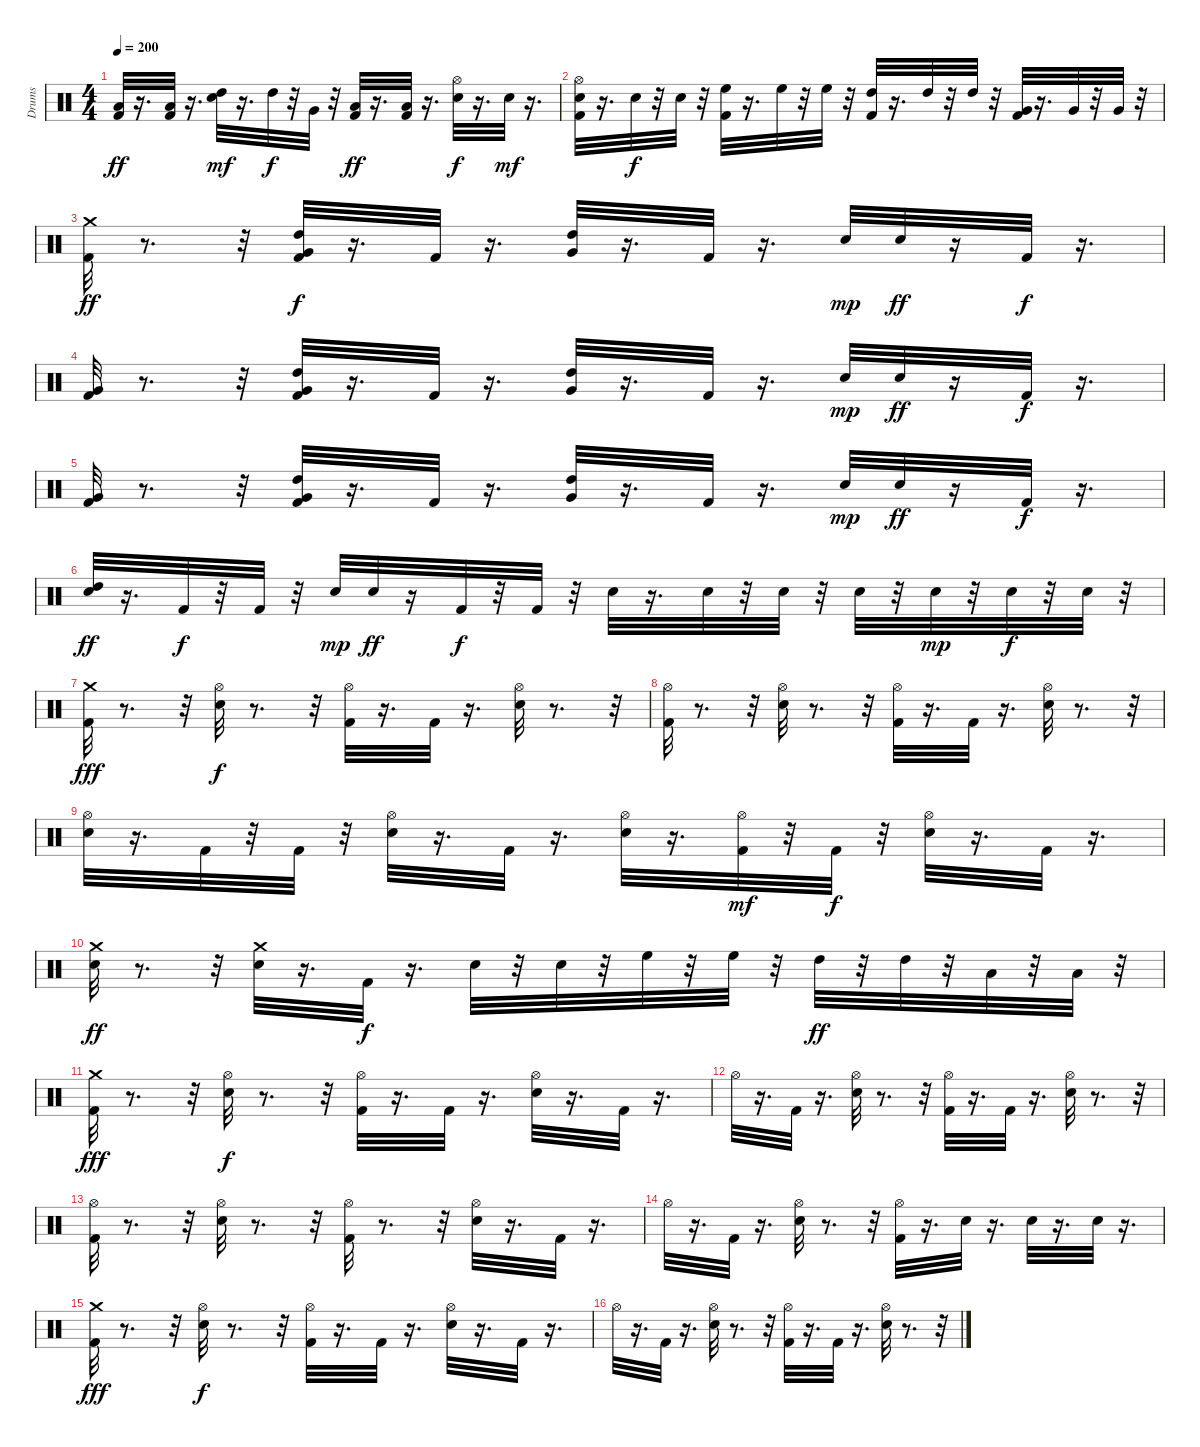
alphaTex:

\track ("Drums" "Drums") {instrument percussion}
\staff {score}
\articulation defaults
\ts (4 4)
\tempo 200
\clef neutral
\ks c
("Low Floor Tom (hit)" "Kick (hit) 2").32{dy ff} r.16{d} ("Low Floor Tom (hit)" "Kick (hit) 2").32 r.16{d} ("High Tom (hit)" "Snare (hit) 2").32{dy mf} r.16{d} "High Tom (hit)".32{dy f} r.32 "Very Low Tom (hit)".32 r.32 ("Low Floor Tom (hit)" "Kick (hit) 2").32{dy ff} r.16{d} ("Low Floor Tom (hit)" "Kick (hit) 2").32 r.16{d} ("Hi-Hat (open)" "Snare (hit) 2").32{dy f} r.16{d} "Snare (hit) 2".32{dy mf} r.16{d} |
("Kick (hit) 2" "Snare (hit) 2" "Hi-Hat (open)").32 r.16{d} "Snare (hit) 2".32{dy f} r.32 "Snare (hit) 2".32 r.32 ("High Floor Tom (hit)" "Kick (hit) 2").32 r.16{d} "High Floor Tom (hit)".32 r.32 "High Floor Tom (hit)".32 r.32 ("High Tom (hit)" "Kick (hit) 2").32 r.16{d} "High Tom (hit)".32 r.32 "High Tom (hit)".32 r.32 ("Kick (hit) 2" "Very Low Tom (hit)").32 r.16{d} "Very Low Tom (hit)".32 r.32 "Very Low Tom (hit)".32 r.32 |
("Crash medium (hit)" "Kick (hit) 2").32{dy ff} r.8{d} r.32 ("Kick (hit) 2" "High Tom (hit)" "Very Low Tom (hit)").32{dy f} r.16{d} "Kick (hit) 2".32 r.16{d} ("High Tom (hit)" "Very Low Tom (hit)").32 r.16{d} "Kick (hit) 2".32 r.16{d} "Snare (hit) 2".32{dy mp} "Snare (hit) 2".32{dy ff} r.16 "Kick (hit) 2".32{dy f} r.16{d} |
("Kick (hit) 2" "Very Low Tom (hit)").32 r.8{d} r.32 ("Kick (hit) 2" "High Tom (hit)" "Very Low Tom (hit)").32 r.16{d} "Kick (hit) 2".32 r.16{d} ("High Tom (hit)" "Very Low Tom (hit)").32 r.16{d} "Kick (hit) 2".32 r.16{d} "Snare (hit) 2".32{dy mp} "Snare (hit) 2".32{dy ff} r.16 "Kick (hit) 2".32{dy f} r.16{d} |
("Kick (hit) 2" "Very Low Tom (hit)").32 r.8{d} r.32 ("Kick (hit) 2" "High Tom (hit)" "Very Low Tom (hit)").32 r.16{d} "Kick (hit) 2".32 r.16{d} ("High Tom (hit)" "Very Low Tom (hit)").32 r.16{d} "Kick (hit) 2".32 r.16{d} "Snare (hit) 2".32{dy mp} "Snare (hit) 2".32{dy ff} r.16 "Kick (hit) 2".32{dy f} r.16{d} |
("High Tom (hit)" "Snare (hit) 2").32{dy ff} r.16{d} "Kick (hit) 2".32{dy f} r.32 "Kick (hit) 2".32 r.32 "Snare (hit) 2".32{dy mp} "Snare (hit) 2".32{dy ff} r.16 "Kick (hit) 2".32{dy f} r.32 "Kick (hit) 2".32 r.32 "Snare (hit) 2".32 r.16{d} "Snare (hit) 2".32 r.32 "Snare (hit) 2".32 r.32 "Snare (hit) 2".32 r.32 "Snare (hit) 2".32{dy mp} r.32 "Snare (hit) 2".32{dy f} r.32 "Snare (hit) 2".32 r.32 |
("Crash medium (hit)" "Kick (hit) 2").32{dy fff} r.8{d} r.32 ("Hi-Hat (open)" "Snare (hit) 2").32{dy f} r.8{d} r.32 ("Hi-Hat (open)" "Kick (hit) 2").32 r.16{d} "Kick (hit) 2".32 r.16{d} ("Hi-Hat (open)" "Snare (hit) 2").32 r.8{d} r.32 |
("Hi-Hat (open)" "Kick (hit) 2").32 r.8{d} r.32 ("Hi-Hat (open)" "Snare (hit) 2").32 r.8{d} r.32 ("Hi-Hat (open)" "Kick (hit) 2").32 r.16{d} "Kick (hit) 2".32 r.16{d} ("Hi-Hat (open)" "Snare (hit) 2").32 r.8{d} r.32 |
("Snare (hit) 2" "Hi-Hat (open)").32 r.16{d} "Kick (hit) 2".32 r.32 "Kick (hit) 2".32 r.32 ("Snare (hit) 2" "Hi-Hat (open)").32 r.16{d} "Kick (hit) 2".32 r.16{d} ("Snare (hit) 2" "Hi-Hat (open)").32 r.16{d} ("Kick (hit) 2" "Hi-Hat (open)").32{dy mf} r.32 "Kick (hit) 2".32{dy f} r.32 ("Snare (hit) 2" "Hi-Hat (open)").32 r.16{d} "Kick (hit) 2".32 r.16{d} |
("Crash medium (hit)" "Snare (hit) 2").32{dy ff} r.8{d} r.32 ("Crash medium (hit)" "Snare (hit) 2").32 r.16{d} "Kick (hit) 2".32{dy f} r.16{d} "Snare (hit) 2".32 r.32 "Snare (hit) 2".32 r.32 "High Floor Tom (hit)".32 r.32 "High Floor Tom (hit)".32 r.32 "High Tom (hit)".32{dy ff} r.32 "High Tom (hit)".32 r.32 "Low Floor Tom (hit)".32 r.32 "Low Floor Tom (hit)".32 r.32 |
("Crash medium (hit)" "Kick (hit) 2").32{dy fff} r.8{d} r.32 ("Hi-Hat (open)" "Snare (hit) 2").32{dy f} r.8{d} r.32 ("Hi-Hat (open)" "Kick (hit) 2").32 r.16{d} "Kick (hit) 2".32 r.16{d} ("Hi-Hat (open)" "Snare (hit) 2").32 r.16{d} "Kick (hit) 2".32 r.16{d} |
"Hi-Hat (open)".32 r.16{d} "Kick (hit) 2".32 r.16{d} ("Hi-Hat (open)" "Snare (hit) 2").32 r.8{d} r.32 ("Hi-Hat (open)" "Kick (hit) 2").32 r.16{d} "Kick (hit) 2".32 r.16{d} ("Hi-Hat (open)" "Snare (hit) 2").32 r.8{d} r.32 |
("Kick (hit) 2" "Hi-Hat (open)").32 r.8{d} r.32 ("Snare (hit) 2" "Hi-Hat (open)").32 r.8{d} r.32 ("Kick (hit) 2" "Hi-Hat (open)").32 r.8{d} r.32 ("Snare (hit) 2" "Hi-Hat (open)").32 r.16{d} "Kick (hit) 2".32 r.16{d} |
"Hi-Hat (open)".32 r.16{d} "Kick (hit) 2".32 r.16{d} ("Snare (hit) 2" "Hi-Hat (open)").32 r.8{d} r.32 ("Kick (hit) 2" "Hi-Hat (open)").32 r.16{d} "Snare (hit) 2".32 r.16{d} "Snare (hit) 2".32 r.16{d} "Snare (hit) 2".32 r.16{d} |
("Crash medium (hit)" "Kick (hit) 2").32{dy fff} r.8{d} r.32 ("Hi-Hat (open)" "Snare (hit) 2").32{dy f} r.8{d} r.32 ("Hi-Hat (open)" "Kick (hit) 2").32 r.16{d} "Kick (hit) 2".32 r.16{d} ("Hi-Hat (open)" "Snare (hit) 2").32 r.16{d} "Kick (hit) 2".32 r.16{d} |
"Hi-Hat (open)".32 r.16{d} "Kick (hit) 2".32 r.16{d} ("Hi-Hat (open)" "Snare (hit) 2").32 r.8{d} r.32 ("Hi-Hat (open)" "Kick (hit) 2").32 r.16{d} "Kick (hit) 2".32 r.16{d} ("Hi-Hat (open)" "Snare (hit) 2").32 r.8{d} r.32
